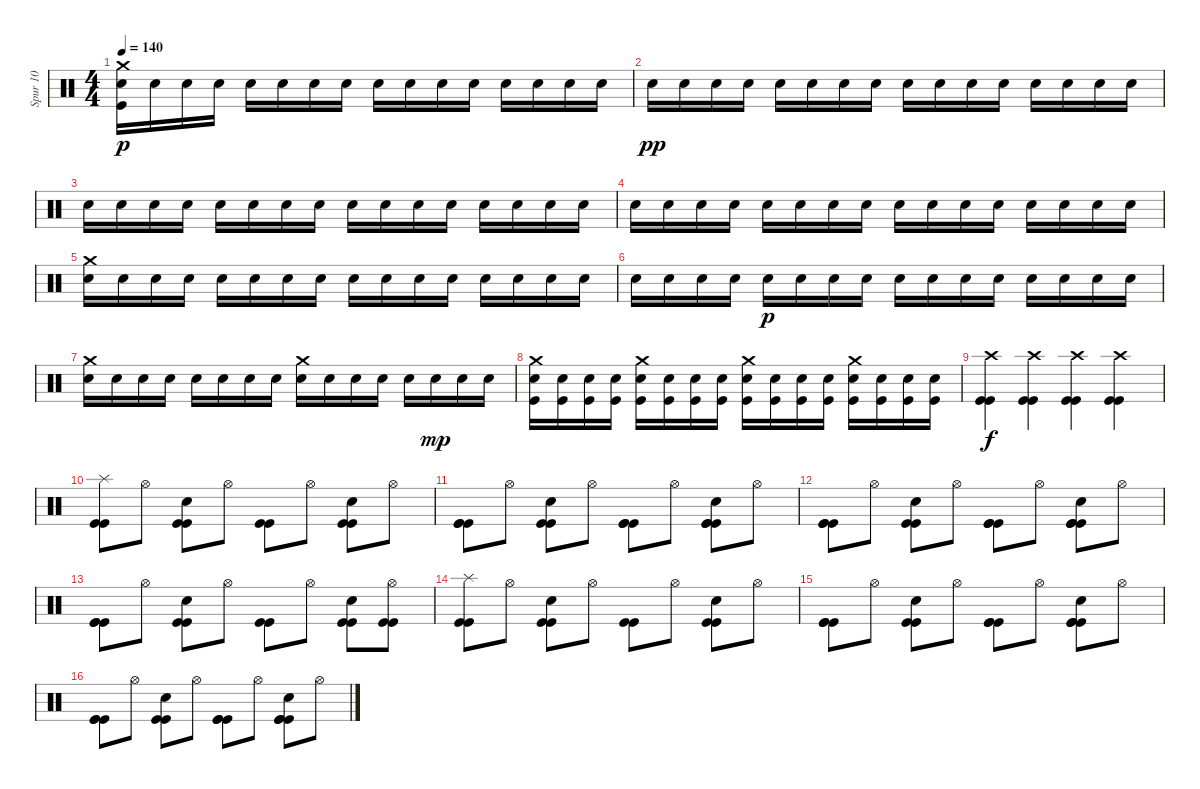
\track ("Spur 10" "Spur 10") {instrument percussion}
\staff {score}
\articulation defaults
\ts (4 4)
\tempo 140
\clef neutral
\ks c
("Crash medium (hit)" "Kick (hit)" "Electric Snare (hit)").16{dy p} "Electric Snare (hit)".16 "Electric Snare (hit)".16 "Electric Snare (hit)".16 "Electric Snare (hit)".16 "Electric Snare (hit)".16 "Electric Snare (hit)".16 "Electric Snare (hit)".16 "Electric Snare (hit)".16 "Electric Snare (hit)".16 "Electric Snare (hit)".16 "Electric Snare (hit)".16 "Electric Snare (hit)".16 "Electric Snare (hit)".16 "Electric Snare (hit)".16 "Electric Snare (hit)".16 |
"Electric Snare (hit)".16{dy pp} "Electric Snare (hit)".16 "Electric Snare (hit)".16 "Electric Snare (hit)".16 "Electric Snare (hit)".16 "Electric Snare (hit)".16 "Electric Snare (hit)".16 "Electric Snare (hit)".16 "Electric Snare (hit)".16 "Electric Snare (hit)".16 "Electric Snare (hit)".16 "Electric Snare (hit)".16 "Electric Snare (hit)".16 "Electric Snare (hit)".16 "Electric Snare (hit)".16 "Electric Snare (hit)".16 |
"Electric Snare (hit)".16 "Electric Snare (hit)".16 "Electric Snare (hit)".16 "Electric Snare (hit)".16 "Electric Snare (hit)".16 "Electric Snare (hit)".16 "Electric Snare (hit)".16 "Electric Snare (hit)".16 "Electric Snare (hit)".16 "Electric Snare (hit)".16 "Electric Snare (hit)".16 "Electric Snare (hit)".16 "Electric Snare (hit)".16 "Electric Snare (hit)".16 "Electric Snare (hit)".16 "Electric Snare (hit)".16 |
"Electric Snare (hit)".16 "Electric Snare (hit)".16 "Electric Snare (hit)".16 "Electric Snare (hit)".16 "Electric Snare (hit)".16 "Electric Snare (hit)".16 "Electric Snare (hit)".16 "Electric Snare (hit)".16 "Electric Snare (hit)".16 "Electric Snare (hit)".16 "Electric Snare (hit)".16 "Electric Snare (hit)".16 "Electric Snare (hit)".16 "Electric Snare (hit)".16 "Electric Snare (hit)".16 "Electric Snare (hit)".16 |
("Crash medium (hit)" "Electric Snare (hit)").16 "Electric Snare (hit)".16 "Electric Snare (hit)".16 "Electric Snare (hit)".16 "Electric Snare (hit)".16 "Electric Snare (hit)".16 "Electric Snare (hit)".16 "Electric Snare (hit)".16 "Electric Snare (hit)".16 "Electric Snare (hit)".16 "Electric Snare (hit)".16 "Electric Snare (hit)".16 "Electric Snare (hit)".16 "Electric Snare (hit)".16 "Electric Snare (hit)".16 "Electric Snare (hit)".16 |
"Electric Snare (hit)".16 "Electric Snare (hit)".16 "Electric Snare (hit)".16 "Electric Snare (hit)".16 "Electric Snare (hit)".16{dy p} "Electric Snare (hit)".16 "Electric Snare (hit)".16 "Electric Snare (hit)".16 "Electric Snare (hit)".16 "Electric Snare (hit)".16 "Electric Snare (hit)".16 "Electric Snare (hit)".16 "Electric Snare (hit)".16 "Electric Snare (hit)".16 "Electric Snare (hit)".16 "Electric Snare (hit)".16 |
("Crash medium (hit)" "Electric Snare (hit)").16 "Electric Snare (hit)".16 "Electric Snare (hit)".16 "Electric Snare (hit)".16 "Electric Snare (hit)".16 "Electric Snare (hit)".16 "Electric Snare (hit)".16 "Electric Snare (hit)".16 ("Electric Snare (hit)" "Crash medium (hit)").16 "Electric Snare (hit)".16 "Electric Snare (hit)".16 "Electric Snare (hit)".16 "Electric Snare (hit)".16 "Electric Snare (hit)".16{dy mp} "Electric Snare (hit)".16 "Electric Snare (hit)".16 |
("Crash medium (hit)" "Kick (hit)" "Electric Snare (hit)").16 ("Kick (hit)" "Electric Snare (hit)").16 ("Kick (hit)" "Electric Snare (hit)").16 ("Kick (hit)" "Electric Snare (hit)").16 ("Crash medium (hit)" "Kick (hit)" "Electric Snare (hit)").16 ("Kick (hit)" "Electric Snare (hit)").16 ("Kick (hit)" "Electric Snare (hit)").16 ("Kick (hit)" "Electric Snare (hit)").16 ("Crash medium (hit)" "Kick (hit)" "Electric Snare (hit)").16 ("Kick (hit)" "Electric Snare (hit)").16 ("Kick (hit)" "Electric Snare (hit)").16 ("Kick (hit)" "Electric Snare (hit)").16 ("Crash medium (hit)" "Kick (hit)" "Electric Snare (hit)").16 ("Kick (hit)" "Electric Snare (hit)").16 ("Kick (hit)" "Electric Snare (hit)").16 ("Kick (hit)" "Electric Snare (hit)").16 |
("Kick (hit)" "Kick (hit)" "Crash high (hit)").4{dy f} ("Kick (hit)" "Kick (hit)" "Crash high (hit)").4 ("Kick (hit)" "Kick (hit)" "Crash high (hit)").4 ("Kick (hit)" "Kick (hit)" "Crash high (hit)").4 |
("Kick (hit)" "Kick (hit)" "Splash (hit)").8 "Hi-Hat (open)".8 ("Hand Clap (hit)" "Kick (hit)" "Kick (hit)").8 "Hi-Hat (open)".8 ("Kick (hit)" "Kick (hit)").8 "Hi-Hat (open)".8 ("Kick (hit)" "Kick (hit)" "Hand Clap (hit)").8 "Hi-Hat (open)".8 |
("Kick (hit)" "Kick (hit)" "Kick (hit)").8 "Hi-Hat (open)".8 ("Kick (hit)" "Kick (hit)" "Hand Clap (hit)").8 "Hi-Hat (open)".8 ("Kick (hit)" "Kick (hit)" "Kick (hit)").8 "Hi-Hat (open)".8 ("Kick (hit)" "Kick (hit)" "Hand Clap (hit)" "Kick (hit)").8 "Hi-Hat (open)".8 |
("Kick (hit)" "Kick (hit)" "Kick (hit)").8 "Hi-Hat (open)".8 ("Kick (hit)" "Hand Clap (hit)" "Kick (hit)").8 "Hi-Hat (open)".8 ("Kick (hit)" "Kick (hit)" "Kick (hit)").8 "Hi-Hat (open)".8 ("Kick (hit)" "Hand Clap (hit)" "Kick (hit)" "Kick (hit)").8 "Hi-Hat (open)".8 |
("Kick (hit)" "Kick (hit)" "Kick (hit)").8 "Hi-Hat (open)".8 ("Hand Clap (hit)" "Kick (hit)" "Kick (hit)").8 "Hi-Hat (open)".8 ("Kick (hit)" "Kick (hit)").8 "Hi-Hat (open)".8 ("Kick (hit)" "Hand Clap (hit)" "Kick (hit)").8 ("Hi-Hat (open)" "Kick (hit)" "Kick (hit)").8 |
("Kick (hit)" "Kick (hit)" "Splash (hit)").8 "Hi-Hat (open)".8 ("Kick (hit)" "Hand Clap (hit)" "Kick (hit)").8 "Hi-Hat (open)".8 ("Kick (hit)" "Kick (hit)").8 "Hi-Hat (open)".8 ("Kick (hit)" "Hand Clap (hit)" "Kick (hit)").8 "Hi-Hat (open)".8 |
("Kick (hit)" "Kick (hit)" "Kick (hit)").8 "Hi-Hat (open)".8 ("Kick (hit)" "Kick (hit)" "Hand Clap (hit)").8 "Hi-Hat (open)".8 ("Kick (hit)" "Kick (hit)" "Kick (hit)").8 "Hi-Hat (open)".8 ("Kick (hit)" "Kick (hit)" "Hand Clap (hit)" "Kick (hit)").8 "Hi-Hat (open)".8 |
("Kick (hit)" "Kick (hit)" "Kick (hit)").8 "Hi-Hat (open)".8 ("Kick (hit)" "Kick (hit)" "Hand Clap (hit)").8 "Hi-Hat (open)".8 ("Kick (hit)" "Kick (hit)" "Kick (hit)").8 "Hi-Hat (open)".8 ("Kick (hit)" "Kick (hit)" "Hand Clap (hit)" "Kick (hit)").8 "Hi-Hat (open)".8
